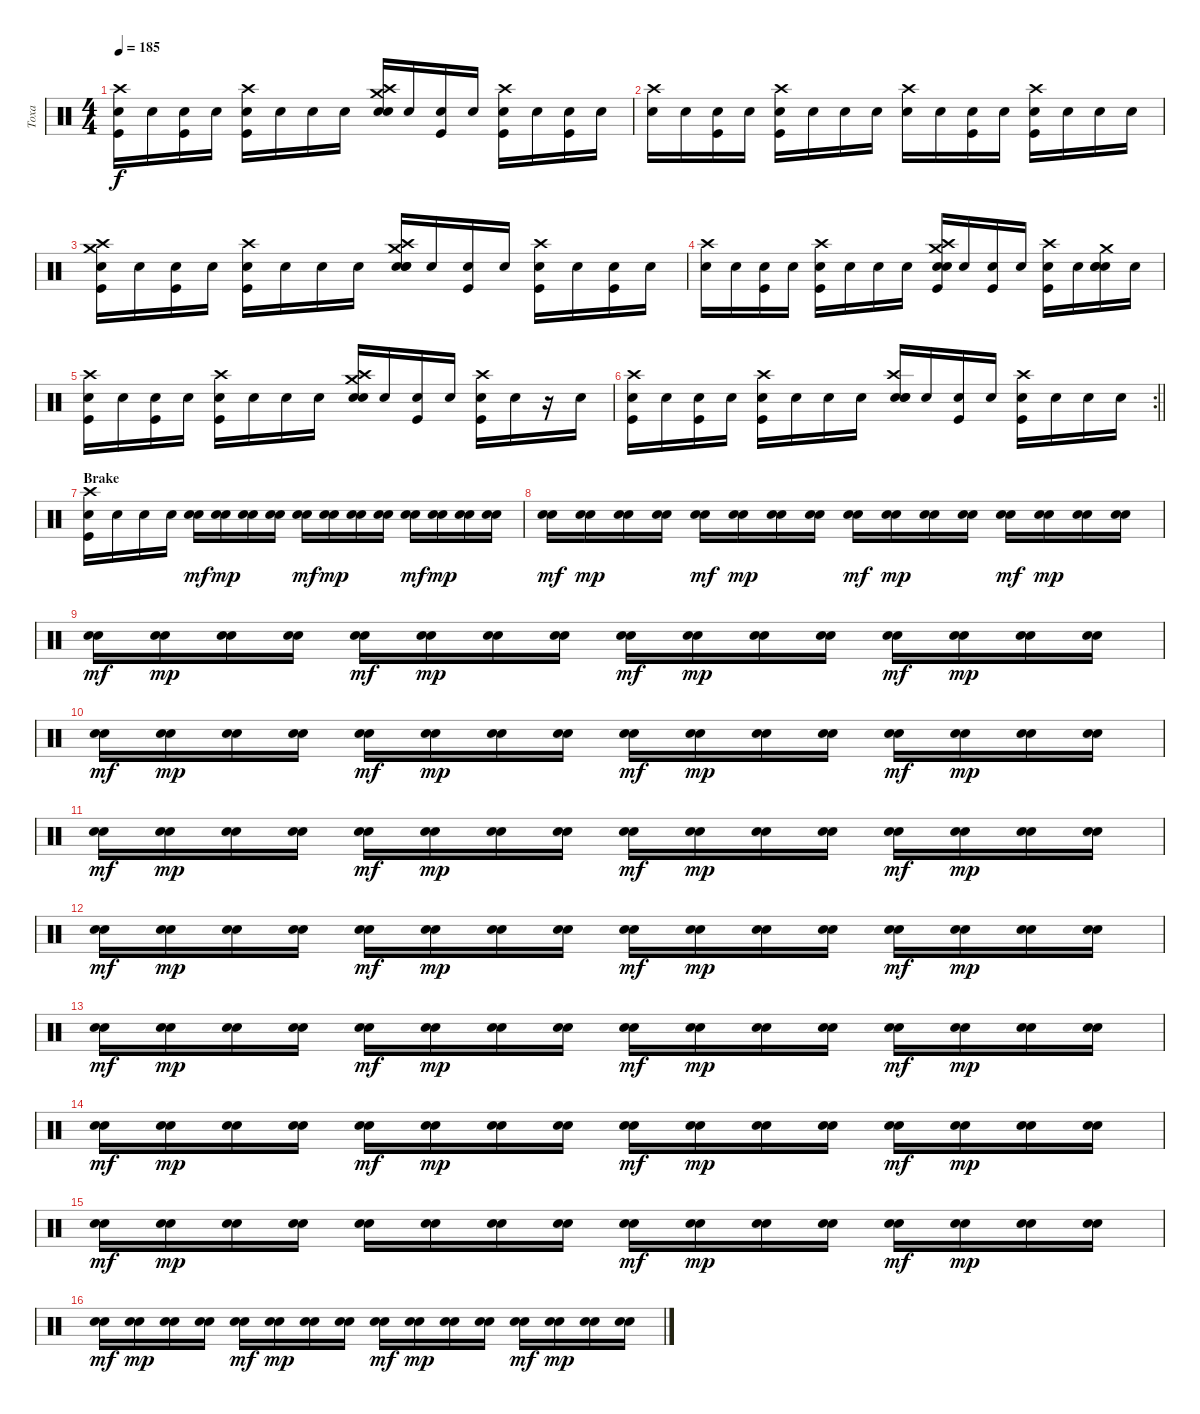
\track ("Toxa" "Toxa") {instrument percussion}
\staff {score}
\articulation defaults
\ts (4 4)
\tempo 185
\clef neutral
\ks c
("Snare (hit)"{x} "Kick (hit)" "Crash high (hit)").16{dy f} "Snare (hit)"{x}.16 ("Snare (hit)"{x} "Kick (hit)").16 "Snare (hit)"{x}.16 ("Snare (hit)"{x} "Kick (hit)" "Crash high (hit)").16 "Snare (hit)"{x}.16 "Snare (hit)"{x}.16 "Snare (hit)"{x}.16 ("Crash medium (hit)" "Electric Snare (hit)" "Snare (hit) 2" "Crash high (hit)").16 "Snare (hit)"{x}.16 ("Snare (hit)"{x} "Kick (hit)").16 "Snare (hit)"{x}.16 ("Snare (hit)"{x} "Kick (hit)" "Crash high (hit)").16 "Snare (hit)"{x}.16 ("Snare (hit)"{x} "Kick (hit)").16 "Snare (hit)"{x}.16 |
("Snare (hit)"{x} "Crash high (hit)").16 "Snare (hit)"{x}.16 ("Snare (hit)"{x} "Kick (hit)").16 "Snare (hit)"{x}.16 ("Snare (hit)"{x} "Kick (hit)" "Crash high (hit)").16 "Snare (hit)"{x}.16 "Snare (hit)"{x}.16 "Snare (hit)"{x}.16 ("Snare (hit)"{x} "Crash high (hit)").16 "Snare (hit)"{x}.16 ("Snare (hit)"{x} "Kick (hit)").16 "Snare (hit)"{x}.16 ("Snare (hit)"{x} "Kick (hit)" "Crash high (hit)").16 "Snare (hit)"{x}.16 "Snare (hit)"{x}.16 "Snare (hit)"{x}.16 |
("Snare (hit)"{x} "Kick (hit)" "Crash medium (hit)" "Crash high (hit)").16 "Snare (hit)"{x}.16 ("Snare (hit)"{x} "Kick (hit)").16 "Snare (hit)"{x}.16 ("Snare (hit)"{x} "Kick (hit)" "Crash high (hit)").16 "Snare (hit)"{x}.16 "Snare (hit)"{x}.16 "Snare (hit)"{x}.16 ("Snare (hit)"{x} "Crash medium (hit)" "Electric Snare (hit)" "Snare (hit) 2" "Crash high (hit)").16 "Snare (hit)"{x}.16 ("Snare (hit)"{x} "Kick (hit)").16 "Snare (hit)"{x}.16 ("Snare (hit)"{x} "Kick (hit)" "Crash high (hit)").16 "Snare (hit)"{x}.16 ("Snare (hit)"{x} "Kick (hit)").16 "Snare (hit)"{x}.16 |
("Snare (hit)"{x} "Crash high (hit)").16 "Snare (hit)"{x}.16 ("Snare (hit)"{x} "Kick (hit)").16 "Snare (hit)"{x}.16 ("Snare (hit)"{x} "Kick (hit)" "Crash high (hit)").16 "Snare (hit)"{x}.16 "Snare (hit)"{x}.16 "Snare (hit)"{x}.16 ("Snare (hit)"{x} "Electric Snare (hit)" "Crash medium (hit)" "Kick (hit)" "Crash high (hit)").16 "Snare (hit)"{x}.16 ("Snare (hit)"{x} "Kick (hit)").16 "Snare (hit)"{x}.16 ("Snare (hit)"{x} "Kick (hit)" "Crash high (hit)").16 "Snare (hit)"{x}.16 ("Snare (hit)"{x} "Electric Snare (hit)" "Crash medium (hit)" "Snare (hit) 2").16 "Snare (hit)"{x}.16 |
("Snare (hit)"{x} "Kick (hit)" "Crash high (hit)").16 "Snare (hit)"{x}.16 ("Snare (hit)"{x} "Kick (hit)").16 "Snare (hit)"{x}.16 ("Snare (hit)"{x} "Kick (hit)" "Crash high (hit)").16 "Snare (hit)"{x}.16 "Snare (hit)"{x}.16 "Snare (hit)"{x}.16 ("Crash medium (hit)" "Electric Snare (hit)" "Snare (hit) 2" "Crash high (hit)").16 "Snare (hit)"{x}.16 ("Snare (hit)"{x} "Kick (hit)").16 "Snare (hit)"{x}.16 ("Snare (hit)"{x} "Kick (hit)" "Crash high (hit)").16 "Snare (hit)"{x}.16 r.16 "Snare (hit)"{x}.16 |
\rc 2
\barLineRight lightlight
("Snare (hit)"{x} "Kick (hit)" "Crash high (hit)").16 "Snare (hit)"{x}.16 ("Snare (hit)"{x} "Kick (hit)").16 "Snare (hit)"{x}.16 ("Snare (hit)"{x} "Kick (hit)" "Crash high (hit)").16 "Snare (hit)"{x}.16 "Snare (hit)"{x}.16 "Snare (hit)"{x}.16 ("Snare (hit)"{x} "Snare (hit) 2" "Electric Snare (hit)" "Crash high (hit)").16 "Snare (hit)"{x}.16 ("Snare (hit)"{x} "Kick (hit)").16 "Snare (hit)"{x}.16 ("Snare (hit)"{x} "Kick (hit)" "Crash high (hit)").16 "Snare (hit)"{x}.16 "Snare (hit)"{x}.16 "Snare (hit)"{x}.16 |
\section ("" "Brake")
("Kick (hit)" "Crash high (hit)" "Snare (hit)"{x}).16 "Snare (hit)"{x}.16 "Snare (hit)"{x}.16 "Snare (hit)"{x}.16 ("Electric Snare (hit)" "Snare (hit)"{x}).16{dy mf} ("Electric Snare (hit)" "Snare (hit)"{x}).16{dy mp} ("Electric Snare (hit)" "Snare (hit)"{x}).16 ("Electric Snare (hit)" "Snare (hit)"{x}).16 ("Electric Snare (hit)" "Snare (hit)"{x}).16{dy mf} ("Electric Snare (hit)" "Snare (hit)"{x}).16{dy mp} ("Electric Snare (hit)" "Snare (hit)"{x}).16 ("Electric Snare (hit)" "Snare (hit)"{x}).16 ("Electric Snare (hit)" "Snare (hit)"{x}).16{dy mf} ("Electric Snare (hit)" "Snare (hit)"{x}).16{dy mp} ("Electric Snare (hit)" "Snare (hit)"{x}).16 ("Electric Snare (hit)" "Snare (hit)"{x}).16 |
("Electric Snare (hit)" "Snare (hit)"{x}).16{dy mf} ("Electric Snare (hit)" "Snare (hit)"{x}).16{dy mp} ("Electric Snare (hit)" "Snare (hit)"{x}).16 ("Electric Snare (hit)" "Snare (hit)"{x}).16 ("Electric Snare (hit)" "Snare (hit)"{x}).16{dy mf} ("Electric Snare (hit)" "Snare (hit)"{x}).16{dy mp} ("Electric Snare (hit)" "Snare (hit)"{x}).16 ("Electric Snare (hit)" "Snare (hit)"{x}).16 ("Electric Snare (hit)" "Snare (hit)"{x}).16{dy mf} ("Electric Snare (hit)" "Snare (hit)"{x}).16{dy mp} ("Electric Snare (hit)" "Snare (hit)"{x}).16 ("Electric Snare (hit)" "Snare (hit)"{x}).16 ("Electric Snare (hit)" "Snare (hit)"{x}).16{dy mf} ("Electric Snare (hit)" "Snare (hit)"{x}).16{dy mp} ("Electric Snare (hit)" "Snare (hit)"{x}).16 ("Electric Snare (hit)" "Snare (hit)"{x}).16 |
("Electric Snare (hit)" "Snare (hit)"{x}).16{dy mf} ("Electric Snare (hit)" "Snare (hit)"{x}).16{dy mp} ("Electric Snare (hit)" "Snare (hit)"{x}).16 ("Electric Snare (hit)" "Snare (hit)"{x}).16 ("Electric Snare (hit)" "Snare (hit)"{x}).16{dy mf} ("Electric Snare (hit)" "Snare (hit)"{x}).16{dy mp} ("Electric Snare (hit)" "Snare (hit)"{x}).16 ("Electric Snare (hit)" "Snare (hit)"{x}).16 ("Electric Snare (hit)" "Snare (hit)"{x}).16{dy mf} ("Electric Snare (hit)" "Snare (hit)"{x}).16{dy mp} ("Electric Snare (hit)" "Snare (hit)"{x}).16 ("Electric Snare (hit)" "Snare (hit)"{x}).16 ("Electric Snare (hit)" "Snare (hit)"{x}).16{dy mf} ("Electric Snare (hit)" "Snare (hit)"{x}).16{dy mp} ("Electric Snare (hit)" "Snare (hit)"{x}).16 ("Electric Snare (hit)" "Snare (hit)"{x}).16 |
("Electric Snare (hit)" "Snare (hit)"{x}).16{dy mf} ("Electric Snare (hit)" "Snare (hit)"{x}).16{dy mp} ("Electric Snare (hit)" "Snare (hit)"{x}).16 ("Electric Snare (hit)" "Snare (hit)"{x}).16 ("Electric Snare (hit)" "Snare (hit)"{x}).16{dy mf} ("Electric Snare (hit)" "Snare (hit)"{x}).16{dy mp} ("Electric Snare (hit)" "Snare (hit)"{x}).16 ("Electric Snare (hit)" "Snare (hit)"{x}).16 ("Electric Snare (hit)" "Snare (hit)"{x}).16{dy mf} ("Electric Snare (hit)" "Snare (hit)"{x}).16{dy mp} ("Electric Snare (hit)" "Snare (hit)"{x}).16 ("Electric Snare (hit)" "Snare (hit)"{x}).16 ("Electric Snare (hit)" "Snare (hit)"{x}).16{dy mf} ("Electric Snare (hit)" "Snare (hit)"{x}).16{dy mp} ("Electric Snare (hit)" "Snare (hit)"{x}).16 ("Electric Snare (hit)" "Snare (hit)"{x}).16 |
("Electric Snare (hit)" "Snare (hit)"{x}).16{dy mf} ("Electric Snare (hit)" "Snare (hit)"{x}).16{dy mp} ("Electric Snare (hit)" "Snare (hit)"{x}).16 ("Electric Snare (hit)" "Snare (hit)"{x}).16 ("Electric Snare (hit)" "Snare (hit)"{x}).16{dy mf} ("Electric Snare (hit)" "Snare (hit)"{x}).16{dy mp} ("Electric Snare (hit)" "Snare (hit)"{x}).16 ("Electric Snare (hit)" "Snare (hit)"{x}).16 ("Electric Snare (hit)" "Snare (hit)"{x}).16{dy mf} ("Electric Snare (hit)" "Snare (hit)"{x}).16{dy mp} ("Electric Snare (hit)" "Snare (hit)"{x}).16 ("Electric Snare (hit)" "Snare (hit)"{x}).16 ("Electric Snare (hit)" "Snare (hit)"{x}).16{dy mf} ("Electric Snare (hit)" "Snare (hit)"{x}).16{dy mp} ("Electric Snare (hit)" "Snare (hit)"{x}).16 ("Electric Snare (hit)" "Snare (hit)"{x}).16 |
("Electric Snare (hit)" "Snare (hit)"{x}).16{dy mf} ("Electric Snare (hit)" "Snare (hit)"{x}).16{dy mp} ("Electric Snare (hit)" "Snare (hit)"{x}).16 ("Electric Snare (hit)" "Snare (hit)"{x}).16 ("Electric Snare (hit)" "Snare (hit)"{x}).16{dy mf} ("Electric Snare (hit)" "Snare (hit)"{x}).16{dy mp} ("Electric Snare (hit)" "Snare (hit)"{x}).16 ("Electric Snare (hit)" "Snare (hit)"{x}).16 ("Electric Snare (hit)" "Snare (hit)"{x}).16{dy mf} ("Electric Snare (hit)" "Snare (hit)"{x}).16{dy mp} ("Electric Snare (hit)" "Snare (hit)"{x}).16 ("Electric Snare (hit)" "Snare (hit)"{x}).16 ("Electric Snare (hit)" "Snare (hit)"{x}).16{dy mf} ("Electric Snare (hit)" "Snare (hit)"{x}).16{dy mp} ("Electric Snare (hit)" "Snare (hit)"{x}).16 ("Electric Snare (hit)" "Snare (hit)"{x}).16 |
("Electric Snare (hit)" "Snare (hit)"{x}).16{dy mf} ("Electric Snare (hit)" "Snare (hit)"{x}).16{dy mp} ("Electric Snare (hit)" "Snare (hit)"{x}).16 ("Electric Snare (hit)" "Snare (hit)"{x}).16 ("Electric Snare (hit)" "Snare (hit)"{x}).16{dy mf} ("Electric Snare (hit)" "Snare (hit)"{x}).16{dy mp} ("Electric Snare (hit)" "Snare (hit)"{x}).16 ("Electric Snare (hit)" "Snare (hit)"{x}).16 ("Electric Snare (hit)" "Snare (hit)"{x}).16{dy mf} ("Electric Snare (hit)" "Snare (hit)"{x}).16{dy mp} ("Electric Snare (hit)" "Snare (hit)"{x}).16 ("Electric Snare (hit)" "Snare (hit)"{x}).16 ("Electric Snare (hit)" "Snare (hit)"{x}).16{dy mf} ("Electric Snare (hit)" "Snare (hit)"{x}).16{dy mp} ("Electric Snare (hit)" "Snare (hit)"{x}).16 ("Electric Snare (hit)" "Snare (hit)"{x}).16 |
("Electric Snare (hit)" "Snare (hit)"{x}).16{dy mf} ("Electric Snare (hit)" "Snare (hit)"{x}).16{dy mp} ("Electric Snare (hit)" "Snare (hit)"{x}).16 ("Electric Snare (hit)" "Snare (hit)"{x}).16 ("Electric Snare (hit)" "Snare (hit)"{x}).16{dy mf} ("Electric Snare (hit)" "Snare (hit)"{x}).16{dy mp} ("Electric Snare (hit)" "Snare (hit)"{x}).16 ("Electric Snare (hit)" "Snare (hit)"{x}).16 ("Electric Snare (hit)" "Snare (hit)"{x}).16{dy mf} ("Electric Snare (hit)" "Snare (hit)"{x}).16{dy mp} ("Electric Snare (hit)" "Snare (hit)"{x}).16 ("Electric Snare (hit)" "Snare (hit)"{x}).16 ("Electric Snare (hit)" "Snare (hit)"{x}).16{dy mf} ("Electric Snare (hit)" "Snare (hit)"{x}).16{dy mp} ("Electric Snare (hit)" "Snare (hit)"{x}).16 ("Electric Snare (hit)" "Snare (hit)"{x}).16 |
("Electric Snare (hit)" "Snare (hit)"{x}).16{dy mf} ("Electric Snare (hit)" "Snare (hit)"{x}).16{dy mp} ("Electric Snare (hit)" "Snare (hit)"{x}).16 ("Electric Snare (hit)" "Snare (hit)"{x}).16 ("Electric Snare (hit)" "Snare (hit)"{x}).16 ("Electric Snare (hit)" "Snare (hit)"{x}).16 ("Electric Snare (hit)" "Snare (hit)"{x}).16 ("Electric Snare (hit)" "Snare (hit)"{x}).16 ("Electric Snare (hit)" "Snare (hit)"{x}).16{dy mf} ("Electric Snare (hit)" "Snare (hit)"{x}).16{dy mp} ("Electric Snare (hit)" "Snare (hit)"{x}).16 ("Electric Snare (hit)" "Snare (hit)"{x}).16 ("Electric Snare (hit)" "Snare (hit)"{x}).16{dy mf} ("Electric Snare (hit)" "Snare (hit)"{x}).16{dy mp} ("Electric Snare (hit)" "Snare (hit)"{x}).16 ("Electric Snare (hit)" "Snare (hit)"{x}).16 |
("Electric Snare (hit)" "Snare (hit)"{x}).16{dy mf} ("Electric Snare (hit)" "Snare (hit)"{x}).16{dy mp} ("Electric Snare (hit)" "Snare (hit)"{x}).16 ("Electric Snare (hit)" "Snare (hit)"{x}).16 ("Electric Snare (hit)" "Snare (hit)"{x}).16{dy mf} ("Electric Snare (hit)" "Snare (hit)"{x}).16{dy mp} ("Electric Snare (hit)" "Snare (hit)"{x}).16 ("Electric Snare (hit)" "Snare (hit)"{x}).16 ("Electric Snare (hit)" "Snare (hit)"{x}).16{dy mf} ("Electric Snare (hit)" "Snare (hit)"{x}).16{dy mp} ("Electric Snare (hit)" "Snare (hit)"{x}).16 ("Electric Snare (hit)" "Snare (hit)"{x}).16 ("Electric Snare (hit)" "Snare (hit)"{x}).16{dy mf} ("Electric Snare (hit)" "Snare (hit)"{x}).16{dy mp} ("Electric Snare (hit)" "Snare (hit)"{x}).16 ("Electric Snare (hit)" "Snare (hit)"{x}).16
